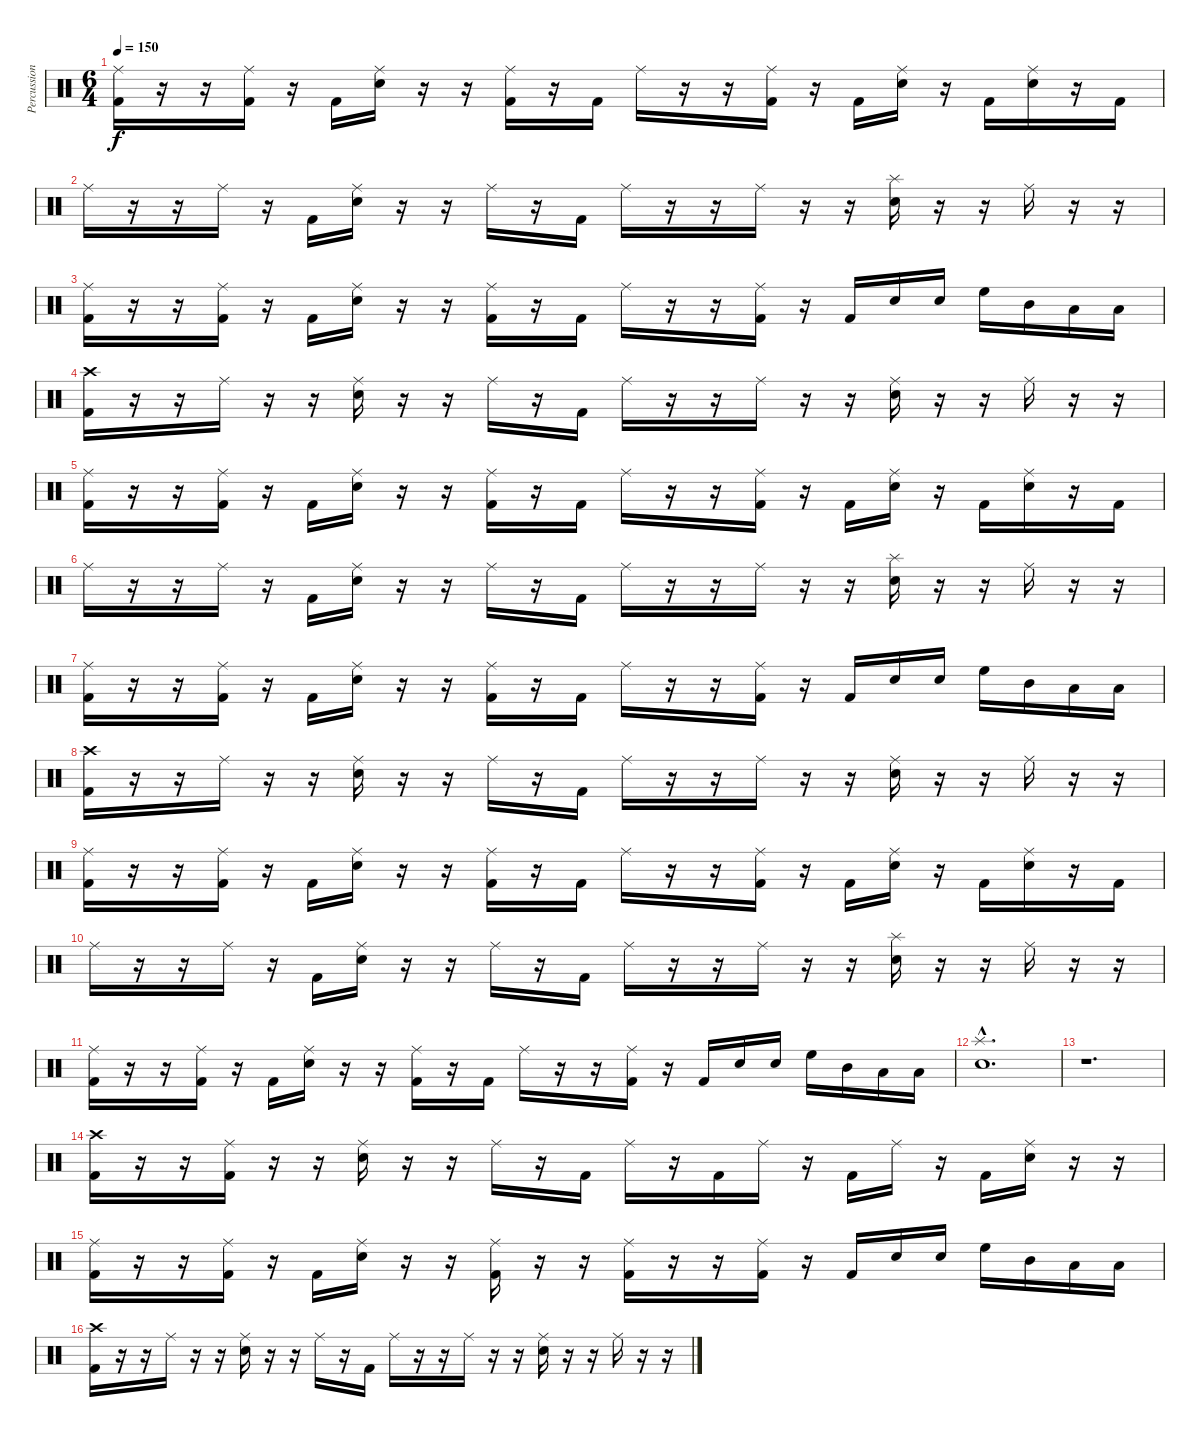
\track ("Percussion" "Percussion") {instrument percussion}
\staff {score}
\articulation defaults
\ts (6 4)
\tempo 150
\clef neutral
\ks c
("Ride (middle)" "Kick (hit) 2").16{dy f} r.16 r.16 ("Ride (middle)" "Kick (hit) 2").16 r.16 "Kick (hit) 2".16 ("Ride (middle)" "Electric Snare (hit)").16 r.16 r.16 ("Ride (middle)" "Kick (hit) 2").16 r.16 "Kick (hit) 2".16 "Ride (middle)".16 r.16 r.16 ("Ride (middle)" "Kick (hit) 2").16 r.16 "Kick (hit) 2".16 ("Ride (middle)" "Electric Snare (hit)").16 r.16 "Kick (hit) 2".16 ("Ride (middle)" "Electric Snare (hit)").16 r.16 "Kick (hit) 2".16 |
"Ride (middle)".16 r.16 r.16 "Ride (middle)".16 r.16 "Kick (hit) 2".16 ("Ride (middle)" "Electric Snare (hit)").16 r.16 r.16 "Ride (middle)".16 r.16 "Kick (hit) 2".16 "Ride (middle)".16 r.16 r.16 "Ride (middle)".16 r.16 r.16 ("Splash (hit)" "Electric Snare (hit)").16 r.16 r.16 "Ride (middle)".16 r.16 r.16 |
("Ride (middle)" "Kick (hit) 2").16 r.16 r.16 ("Ride (middle)" "Kick (hit) 2").16 r.16 "Kick (hit) 2".16 ("Ride (middle)" "Electric Snare (hit)").16 r.16 r.16 ("Ride (middle)" "Kick (hit) 2").16 r.16 "Kick (hit) 2".16 "Ride (middle)".16 r.16 r.16 ("Ride (middle)" "Kick (hit) 2").16 r.16 "Kick (hit) 2".16 "Electric Snare (hit)".16 "Electric Snare (hit)".16 "High Floor Tom (hit)".16 "Mid Tom (hit)".16 "Low Tom (hit)".16 "Low Floor Tom (hit)".16 |
("Crash high (hit)" "Kick (hit) 2").16 r.16 r.16 "Ride (middle)".16 r.16 r.16 ("Ride (middle)" "Electric Snare (hit)").16 r.16 r.16 "Ride (middle)".16 r.16 "Kick (hit) 2".16 "Ride (middle)".16 r.16 r.16 "Ride (middle)".16 r.16 r.16 ("Ride (middle)" "Electric Snare (hit)").16 r.16 r.16 "Ride (middle)".16 r.16 r.16 |
("Ride (middle)" "Kick (hit) 2").16 r.16 r.16 ("Ride (middle)" "Kick (hit) 2").16 r.16 "Kick (hit) 2".16 ("Ride (middle)" "Electric Snare (hit)").16 r.16 r.16 ("Ride (middle)" "Kick (hit) 2").16 r.16 "Kick (hit) 2".16 "Ride (middle)".16 r.16 r.16 ("Ride (middle)" "Kick (hit) 2").16 r.16 "Kick (hit) 2".16 ("Ride (middle)" "Electric Snare (hit)").16 r.16 "Kick (hit) 2".16 ("Ride (middle)" "Electric Snare (hit)").16 r.16 "Kick (hit) 2".16 |
"Ride (middle)".16 r.16 r.16 "Ride (middle)".16 r.16 "Kick (hit) 2".16 ("Ride (middle)" "Electric Snare (hit)").16 r.16 r.16 "Ride (middle)".16 r.16 "Kick (hit) 2".16 "Ride (middle)".16 r.16 r.16 "Ride (middle)".16 r.16 r.16 ("Splash (hit)" "Electric Snare (hit)").16 r.16 r.16 "Ride (middle)".16 r.16 r.16 |
("Ride (middle)" "Kick (hit) 2").16 r.16 r.16 ("Ride (middle)" "Kick (hit) 2").16 r.16 "Kick (hit) 2".16 ("Ride (middle)" "Electric Snare (hit)").16 r.16 r.16 ("Ride (middle)" "Kick (hit) 2").16 r.16 "Kick (hit) 2".16 "Ride (middle)".16 r.16 r.16 ("Ride (middle)" "Kick (hit) 2").16 r.16 "Kick (hit) 2".16 "Electric Snare (hit)".16 "Electric Snare (hit)".16 "High Floor Tom (hit)".16 "Mid Tom (hit)".16 "Low Tom (hit)".16 "Low Floor Tom (hit)".16 |
("Crash high (hit)" "Kick (hit) 2").16 r.16 r.16 "Ride (middle)".16 r.16 r.16 ("Ride (middle)" "Electric Snare (hit)").16 r.16 r.16 "Ride (middle)".16 r.16 "Kick (hit) 2".16 "Ride (middle)".16 r.16 r.16 "Ride (middle)".16 r.16 r.16 ("Ride (middle)" "Electric Snare (hit)").16 r.16 r.16 "Ride (middle)".16 r.16 r.16 |
("Ride (middle)" "Kick (hit) 2").16 r.16 r.16 ("Ride (middle)" "Kick (hit) 2").16 r.16 "Kick (hit) 2".16 ("Ride (middle)" "Electric Snare (hit)").16 r.16 r.16 ("Ride (middle)" "Kick (hit) 2").16 r.16 "Kick (hit) 2".16 "Ride (middle)".16 r.16 r.16 ("Ride (middle)" "Kick (hit) 2").16 r.16 "Kick (hit) 2".16 ("Ride (middle)" "Electric Snare (hit)").16 r.16 "Kick (hit) 2".16 ("Ride (middle)" "Electric Snare (hit)").16 r.16 "Kick (hit) 2".16 |
"Ride (middle)".16 r.16 r.16 "Ride (middle)".16 r.16 "Kick (hit) 2".16 ("Ride (middle)" "Electric Snare (hit)").16 r.16 r.16 "Ride (middle)".16 r.16 "Kick (hit) 2".16 "Ride (middle)".16 r.16 r.16 "Ride (middle)".16 r.16 r.16 ("Splash (hit)" "Electric Snare (hit)").16 r.16 r.16 "Ride (middle)".16 r.16 r.16 |
("Ride (middle)" "Kick (hit) 2").16 r.16 r.16 ("Ride (middle)" "Kick (hit) 2").16 r.16 "Kick (hit) 2".16 ("Ride (middle)" "Electric Snare (hit)").16 r.16 r.16 ("Ride (middle)" "Kick (hit) 2").16 r.16 "Kick (hit) 2".16 "Ride (middle)".16 r.16 r.16 ("Ride (middle)" "Kick (hit) 2").16 r.16 "Kick (hit) 2".16 "Electric Snare (hit)".16 "Electric Snare (hit)".16 "High Floor Tom (hit)".16 "Mid Tom (hit)".16 "Low Tom (hit)".16 "Low Floor Tom (hit)".16 |
("Splash (hit)"{hac} "Electric Snare (hit)"{hac}).1{d} |
r.1{d} |
("Crash high (hit)" "Kick (hit) 2").16 r.16 r.16 ("Ride (middle)" "Kick (hit) 2").16 r.16 r.16 ("Ride (middle)" "Electric Snare (hit)").16 r.16 r.16 "Ride (middle)".16 r.16 "Kick (hit) 2".16 "Ride (middle)".16 r.16 "Kick (hit) 2".16 "Ride (middle)".16 r.16 "Kick (hit) 2".16 "Ride (middle)".16 r.16 "Kick (hit) 2".16 ("Ride (middle)" "Electric Snare (hit)").16 r.16 r.16 |
("Ride (middle)" "Kick (hit) 2").16 r.16 r.16 ("Ride (middle)" "Kick (hit) 2").16 r.16 "Kick (hit) 2".16 ("Ride (middle)" "Electric Snare (hit)").16 r.16 r.16 ("Ride (middle)" "Kick (hit) 2").16 r.16 r.16 ("Ride (middle)" "Kick (hit) 2").16 r.16 r.16 ("Ride (middle)" "Kick (hit) 2").16 r.16 "Kick (hit) 2".16 "Electric Snare (hit)".16 "Electric Snare (hit)".16 "High Floor Tom (hit)".16 "Mid Tom (hit)".16 "Low Tom (hit)".16 "Low Floor Tom (hit)".16 |
("Crash high (hit)" "Kick (hit) 2").16 r.16 r.16 "Ride (middle)".16 r.16 r.16 ("Ride (middle)" "Electric Snare (hit)").16 r.16 r.16 "Ride (middle)".16 r.16 "Kick (hit) 2".16 "Ride (middle)".16 r.16 r.16 "Ride (middle)".16 r.16 r.16 ("Ride (middle)" "Electric Snare (hit)").16 r.16 r.16 "Ride (middle)".16 r.16 r.16
